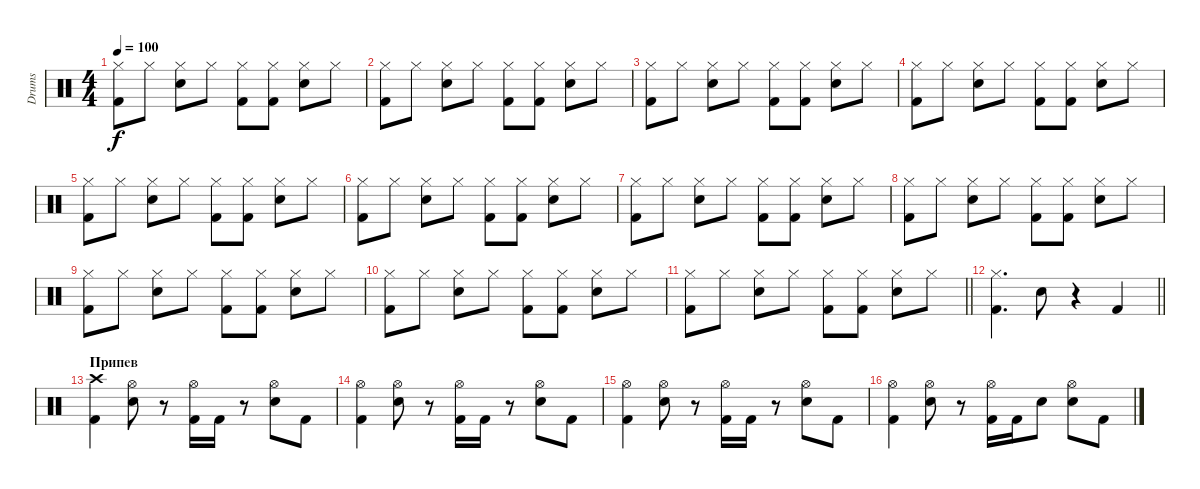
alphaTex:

\track ("Drums" "Drums") {instrument percussion}
\staff {score}
\articulation defaults
\ts (4 4)
\tempo 100
\clef neutral
\ks c
("Hi-Hat (closed)" "Kick (hit) 2").8{dy f} "Hi-Hat (closed)".8 ("Hi-Hat (closed)" "Snare (hit) 2").8 "Hi-Hat (closed)".8 ("Hi-Hat (closed)" "Kick (hit) 2").8 ("Hi-Hat (closed)" "Kick (hit) 2").8 ("Hi-Hat (closed)" "Snare (hit) 2").8 "Hi-Hat (closed)".8 |
("Hi-Hat (closed)" "Kick (hit) 2").8 "Hi-Hat (closed)".8 ("Hi-Hat (closed)" "Snare (hit) 2").8 "Hi-Hat (closed)".8 ("Hi-Hat (closed)" "Kick (hit) 2").8 ("Hi-Hat (closed)" "Kick (hit) 2").8 ("Hi-Hat (closed)" "Snare (hit) 2").8 "Hi-Hat (closed)".8 |
("Hi-Hat (closed)" "Kick (hit) 2").8 "Hi-Hat (closed)".8 ("Hi-Hat (closed)" "Snare (hit) 2").8 "Hi-Hat (closed)".8 ("Hi-Hat (closed)" "Kick (hit) 2").8 ("Hi-Hat (closed)" "Kick (hit) 2").8 ("Hi-Hat (closed)" "Snare (hit) 2").8 "Hi-Hat (closed)".8 |
("Hi-Hat (closed)" "Kick (hit) 2").8 "Hi-Hat (closed)".8 ("Hi-Hat (closed)" "Snare (hit) 2").8 "Hi-Hat (closed)".8 ("Hi-Hat (closed)" "Kick (hit) 2").8 ("Hi-Hat (closed)" "Kick (hit) 2").8 ("Hi-Hat (closed)" "Snare (hit) 2").8 "Hi-Hat (closed)".8 |
("Hi-Hat (closed)" "Kick (hit) 2").8 "Hi-Hat (closed)".8 ("Hi-Hat (closed)" "Snare (hit) 2").8 "Hi-Hat (closed)".8 ("Hi-Hat (closed)" "Kick (hit) 2").8 ("Hi-Hat (closed)" "Kick (hit) 2").8 ("Hi-Hat (closed)" "Snare (hit) 2").8 "Hi-Hat (closed)".8 |
("Hi-Hat (closed)" "Kick (hit) 2").8 "Hi-Hat (closed)".8 ("Hi-Hat (closed)" "Snare (hit) 2").8 "Hi-Hat (closed)".8 ("Hi-Hat (closed)" "Kick (hit) 2").8 ("Hi-Hat (closed)" "Kick (hit) 2").8 ("Hi-Hat (closed)" "Snare (hit) 2").8 "Hi-Hat (closed)".8 |
("Hi-Hat (closed)" "Kick (hit) 2").8 "Hi-Hat (closed)".8 ("Hi-Hat (closed)" "Snare (hit) 2").8 "Hi-Hat (closed)".8 ("Hi-Hat (closed)" "Kick (hit) 2").8 ("Hi-Hat (closed)" "Kick (hit) 2").8 ("Hi-Hat (closed)" "Snare (hit) 2").8 "Hi-Hat (closed)".8 |
("Hi-Hat (closed)" "Kick (hit) 2").8 "Hi-Hat (closed)".8 ("Hi-Hat (closed)" "Snare (hit) 2").8 "Hi-Hat (closed)".8 ("Hi-Hat (closed)" "Kick (hit) 2").8 ("Hi-Hat (closed)" "Kick (hit) 2").8 ("Hi-Hat (closed)" "Snare (hit) 2").8 "Hi-Hat (closed)".8 |
("Hi-Hat (closed)" "Kick (hit) 2").8 "Hi-Hat (closed)".8 ("Hi-Hat (closed)" "Snare (hit) 2").8 "Hi-Hat (closed)".8 ("Hi-Hat (closed)" "Kick (hit) 2").8 ("Hi-Hat (closed)" "Kick (hit) 2").8 ("Hi-Hat (closed)" "Snare (hit) 2").8 "Hi-Hat (closed)".8 |
("Hi-Hat (closed)" "Kick (hit) 2").8 "Hi-Hat (closed)".8 ("Hi-Hat (closed)" "Snare (hit) 2").8 "Hi-Hat (closed)".8 ("Hi-Hat (closed)" "Kick (hit) 2").8 ("Hi-Hat (closed)" "Kick (hit) 2").8 ("Hi-Hat (closed)" "Snare (hit) 2").8 "Hi-Hat (closed)".8 |
\barLineRight lightlight
("Hi-Hat (closed)" "Kick (hit) 2").8 "Hi-Hat (closed)".8 ("Hi-Hat (closed)" "Snare (hit) 2").8 "Hi-Hat (closed)".8 ("Hi-Hat (closed)" "Kick (hit) 2").8 ("Hi-Hat (closed)" "Kick (hit) 2").8 ("Hi-Hat (closed)" "Snare (hit) 2").8 "Hi-Hat (closed)".8 |
\barLineRight lightlight
("Hi-Hat (closed)" "Kick (hit) 2").4{d} "Snare (hit) 2".8 r.4 "Kick (hit) 2".4 |
\section ("" "Припев")
("Crash high (hit)" "Kick (hit) 2").4 ("Hi-Hat (open)" "Snare (hit) 2").8 r.8 ("Hi-Hat (open)" "Kick (hit) 2").16 "Kick (hit) 2".16 r.8 ("Hi-Hat (open)" "Snare (hit) 2").8 "Kick (hit) 2".8 |
("Hi-Hat (open)" "Kick (hit) 2").4 ("Hi-Hat (open)" "Snare (hit) 2").8 r.8 ("Hi-Hat (open)" "Kick (hit) 2").16 "Kick (hit) 2".16 r.8 ("Hi-Hat (open)" "Snare (hit) 2").8 "Kick (hit) 2".8 |
("Hi-Hat (open)" "Kick (hit) 2").4 ("Hi-Hat (open)" "Snare (hit) 2").8 r.8 ("Hi-Hat (open)" "Kick (hit) 2").16 "Kick (hit) 2".16 r.8 ("Hi-Hat (open)" "Snare (hit) 2").8 "Kick (hit) 2".8 |
("Hi-Hat (open)" "Kick (hit) 2").4 ("Hi-Hat (open)" "Snare (hit) 2").8 r.8 ("Hi-Hat (open)" "Kick (hit) 2").16 "Kick (hit) 2".16 "Snare (hit) 2".8 ("Hi-Hat (open)" "Snare (hit) 2").8 "Kick (hit) 2".8
